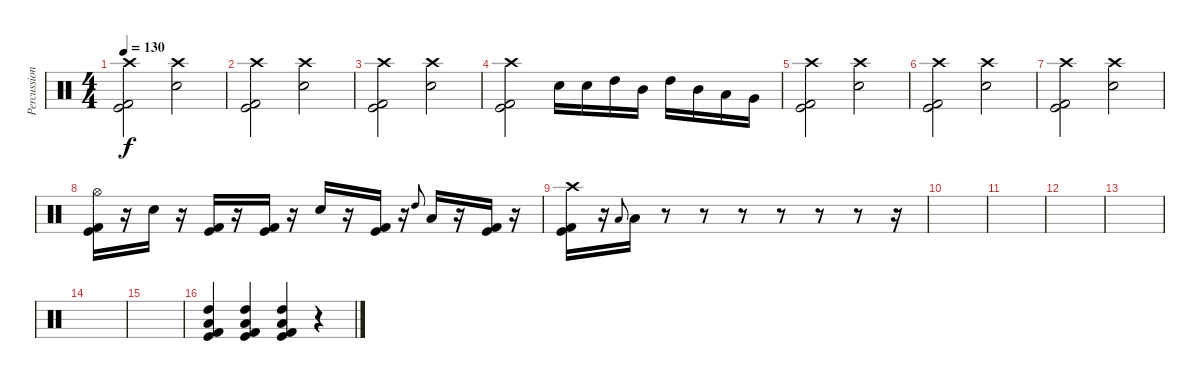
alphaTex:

\track ("Percussion" "Percussion") {instrument percussion}
\staff {score}
\articulation defaults
\ts (4 4)
\tempo 130
\clef neutral
\ks c
("Crash high (hit)" "Kick (hit)" "Kick (hit) 2").2{dy f} ("Crash high (hit)" "Electric Snare (hit)").2 |
("Crash high (hit)" "Kick (hit)" "Kick (hit) 2").2 ("Crash high (hit)" "Electric Snare (hit)").2 |
("Crash high (hit)" "Kick (hit)" "Kick (hit) 2").2 ("Crash high (hit)" "Electric Snare (hit)").2 |
("Crash high (hit)" "Kick (hit)" "Kick (hit) 2").2 "Electric Snare (hit)".16 "Electric Snare (hit)".16 "High Tom (hit)".16 "Mid Tom (hit)".16 "High Tom (hit)".16 "Mid Tom (hit)".16 "Low Tom (hit)".16 "Very Low Tom (hit)".16 |
("Crash high (hit)" "Kick (hit)" "Kick (hit) 2").2 ("Crash high (hit)" "Electric Snare (hit)").2 |
("Crash high (hit)" "Kick (hit)" "Kick (hit) 2").2 ("Crash high (hit)" "Electric Snare (hit)").2 |
("Crash high (hit)" "Kick (hit)" "Kick (hit) 2").2 ("Crash high (hit)" "Electric Snare (hit)").2 |
("Hi-Hat (open)" "Kick (hit)" "Kick (hit) 2").16 r.16 "Electric Snare (hit)".16 r.16 ("Kick (hit)" "Kick (hit) 2").16 r.16 ("Kick (hit)" "Kick (hit) 2").16 r.16 "Electric Snare (hit)".16 r.16 ("Kick (hit)" "Kick (hit) 2").16 r.16 "High Tom (hit)"{x}.8{gr onbeat} "Low Tom (hit)".16 r.16 ("Kick (hit)" "Kick (hit) 2").16 r.16 |
("Crash high (hit)" "Kick (hit)" "Kick (hit) 2").16 r.16 "Low Tom (hit)"{x}.8{gr onbeat} "Low Tom (hit)".16 r.8 r.8 r.8 r.8 r.8 r.8 r.16 |
|
|
|
|
|
|
("High Tom (hit)" "Low Tom (hit)" "Kick (hit)" "Kick (hit) 2").4 ("High Tom (hit)" "Low Tom (hit)" "Kick (hit)" "Kick (hit) 2").4 ("High Tom (hit)" "Low Tom (hit)" "Kick (hit)" "Kick (hit) 2").4 r.4
